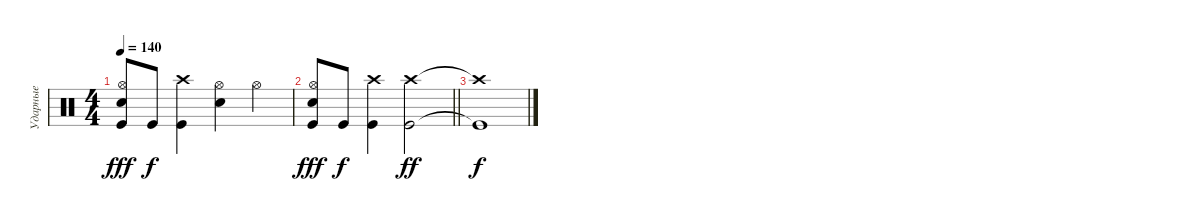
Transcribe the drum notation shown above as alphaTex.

\track ("Ударные" "Ударные") {instrument percussion}
\staff {score}
\articulation defaults
\ts (4 4)
\tempo 140
\clef neutral
\ks c
("Kick (hit)" "Hi-Hat (open)" "Snare (hit) 2").8{dy fff} "Kick (hit)".8{dy f} ("Kick (hit)" "Crash high (hit)").4 ("Snare (hit) 2" "Hi-Hat (open)").4 "Hi-Hat (open)".4 |
\barLineRight lightlight
("Kick (hit)" "Hi-Hat (open)" "Snare (hit) 2").8{dy fff} "Kick (hit)".8{dy f} ("Kick (hit)" "Crash high (hit)").4 ("Crash high (hit)" "Kick (hit)").2{dy ff} |
("Crash high (hit)"{t} "Kick (hit)"{t}).1{dy f}
